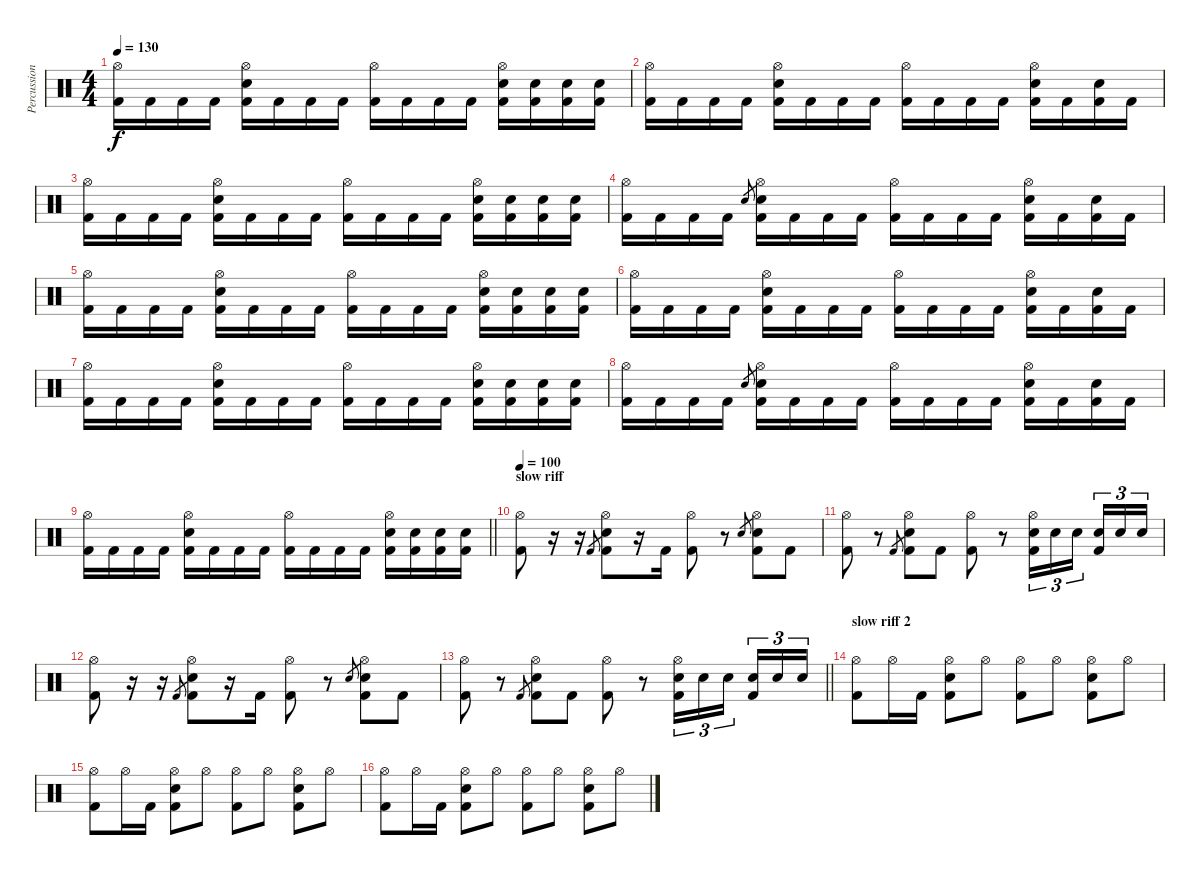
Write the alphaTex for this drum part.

\track ("Percussion" "Percussion") {instrument percussion}
\staff {score}
\articulation defaults
\ts (4 4)
\tempo 130
\clef neutral
\ks c
("Hi-Hat (open)" "Kick (hit) 2").16{dy f} "Kick (hit) 2".16 "Kick (hit) 2".16 "Kick (hit) 2".16 ("Hi-Hat (open)" "Electric Snare (hit)" "Kick (hit) 2").16 "Kick (hit) 2".16 "Kick (hit) 2".16 "Kick (hit) 2".16 ("Hi-Hat (open)" "Kick (hit) 2").16 "Kick (hit) 2".16 "Kick (hit) 2".16 "Kick (hit) 2".16 ("Hi-Hat (open)" "Electric Snare (hit)" "Kick (hit) 2").16 ("Electric Snare (hit)" "Kick (hit) 2").16 ("Electric Snare (hit)" "Kick (hit) 2").16 ("Electric Snare (hit)" "Kick (hit) 2").16 |
("Hi-Hat (open)" "Kick (hit) 2").16 "Kick (hit) 2".16 "Kick (hit) 2".16 "Kick (hit) 2".16 ("Hi-Hat (open)" "Electric Snare (hit)" "Kick (hit) 2").16 "Kick (hit) 2".16 "Kick (hit) 2".16 "Kick (hit) 2".16 ("Hi-Hat (open)" "Kick (hit) 2").16 "Kick (hit) 2".16 "Kick (hit) 2".16 "Kick (hit) 2".16 ("Hi-Hat (open)" "Electric Snare (hit)" "Kick (hit) 2").16 "Kick (hit) 2".16 ("Electric Snare (hit)" "Kick (hit) 2").16 "Kick (hit) 2".16 |
("Hi-Hat (open)" "Kick (hit) 2").16 "Kick (hit) 2".16 "Kick (hit) 2".16 "Kick (hit) 2".16 ("Hi-Hat (open)" "Electric Snare (hit)" "Kick (hit) 2").16 "Kick (hit) 2".16 "Kick (hit) 2".16 "Kick (hit) 2".16 ("Hi-Hat (open)" "Kick (hit) 2").16 "Kick (hit) 2".16 "Kick (hit) 2".16 "Kick (hit) 2".16 ("Hi-Hat (open)" "Electric Snare (hit)" "Kick (hit) 2").16 ("Electric Snare (hit)" "Kick (hit) 2").16 ("Electric Snare (hit)" "Kick (hit) 2").16 ("Electric Snare (hit)" "Kick (hit) 2").16 |
("Hi-Hat (open)" "Kick (hit) 2").16 "Kick (hit) 2".16 "Kick (hit) 2".16 "Kick (hit) 2".16 "Electric Snare (hit)".8{gr} ("Hi-Hat (open)" "Electric Snare (hit)" "Kick (hit) 2").16 "Kick (hit) 2".16 "Kick (hit) 2".16 "Kick (hit) 2".16 ("Hi-Hat (open)" "Kick (hit) 2").16 "Kick (hit) 2".16 "Kick (hit) 2".16 "Kick (hit) 2".16 ("Hi-Hat (open)" "Electric Snare (hit)" "Kick (hit) 2").16 "Kick (hit) 2".16 ("Electric Snare (hit)" "Kick (hit) 2").16 "Kick (hit) 2".16 |
("Hi-Hat (open)" "Kick (hit) 2").16 "Kick (hit) 2".16 "Kick (hit) 2".16 "Kick (hit) 2".16 ("Hi-Hat (open)" "Electric Snare (hit)" "Kick (hit) 2").16 "Kick (hit) 2".16 "Kick (hit) 2".16 "Kick (hit) 2".16 ("Hi-Hat (open)" "Kick (hit) 2").16 "Kick (hit) 2".16 "Kick (hit) 2".16 "Kick (hit) 2".16 ("Hi-Hat (open)" "Electric Snare (hit)" "Kick (hit) 2").16 ("Electric Snare (hit)" "Kick (hit) 2").16 ("Electric Snare (hit)" "Kick (hit) 2").16 ("Electric Snare (hit)" "Kick (hit) 2").16 |
("Hi-Hat (open)" "Kick (hit) 2").16 "Kick (hit) 2".16 "Kick (hit) 2".16 "Kick (hit) 2".16 ("Hi-Hat (open)" "Electric Snare (hit)" "Kick (hit) 2").16 "Kick (hit) 2".16 "Kick (hit) 2".16 "Kick (hit) 2".16 ("Hi-Hat (open)" "Kick (hit) 2").16 "Kick (hit) 2".16 "Kick (hit) 2".16 "Kick (hit) 2".16 ("Hi-Hat (open)" "Electric Snare (hit)" "Kick (hit) 2").16 "Kick (hit) 2".16 ("Electric Snare (hit)" "Kick (hit) 2").16 "Kick (hit) 2".16 |
("Hi-Hat (open)" "Kick (hit) 2").16 "Kick (hit) 2".16 "Kick (hit) 2".16 "Kick (hit) 2".16 ("Hi-Hat (open)" "Electric Snare (hit)" "Kick (hit) 2").16 "Kick (hit) 2".16 "Kick (hit) 2".16 "Kick (hit) 2".16 ("Hi-Hat (open)" "Kick (hit) 2").16 "Kick (hit) 2".16 "Kick (hit) 2".16 "Kick (hit) 2".16 ("Hi-Hat (open)" "Electric Snare (hit)" "Kick (hit) 2").16 ("Electric Snare (hit)" "Kick (hit) 2").16 ("Electric Snare (hit)" "Kick (hit) 2").16 ("Electric Snare (hit)" "Kick (hit) 2").16 |
("Hi-Hat (open)" "Kick (hit) 2").16 "Kick (hit) 2".16 "Kick (hit) 2".16 "Kick (hit) 2".16 "Electric Snare (hit)".8{gr} ("Hi-Hat (open)" "Electric Snare (hit)" "Kick (hit) 2").16 "Kick (hit) 2".16 "Kick (hit) 2".16 "Kick (hit) 2".16 ("Hi-Hat (open)" "Kick (hit) 2").16 "Kick (hit) 2".16 "Kick (hit) 2".16 "Kick (hit) 2".16 ("Hi-Hat (open)" "Electric Snare (hit)" "Kick (hit) 2").16 "Kick (hit) 2".16 ("Electric Snare (hit)" "Kick (hit) 2").16 "Kick (hit) 2".16 |
\barLineRight lightlight
("Hi-Hat (open)" "Kick (hit) 2").16 "Kick (hit) 2".16 "Kick (hit) 2".16 "Kick (hit) 2".16 ("Hi-Hat (open)" "Electric Snare (hit)" "Kick (hit) 2").16 "Kick (hit) 2".16 "Kick (hit) 2".16 "Kick (hit) 2".16 ("Hi-Hat (open)" "Kick (hit) 2").16 "Kick (hit) 2".16 "Kick (hit) 2".16 "Kick (hit) 2".16 ("Hi-Hat (open)" "Electric Snare (hit)" "Kick (hit) 2").16 ("Electric Snare (hit)" "Kick (hit) 2").16 ("Electric Snare (hit)" "Kick (hit) 2").16 ("Electric Snare (hit)" "Kick (hit) 2").16 |
\section ("" "slow riff")
\tempo 100
("Hi-Hat (open)" "Kick (hit) 2").8 r.16 r.16 "Kick (hit) 2".8{gr} ("Hi-Hat (open)" "Electric Snare (hit)" "Kick (hit) 2").8 r.16 "Kick (hit) 2".16 ("Hi-Hat (open)" "Kick (hit) 2").8 r.8 "Electric Snare (hit)".8{gr} ("Hi-Hat (open)" "Electric Snare (hit)" "Kick (hit) 2").8 "Kick (hit) 2".8 |
("Hi-Hat (open)" "Kick (hit) 2").8 r.8 "Kick (hit) 2".8{gr} ("Hi-Hat (open)" "Electric Snare (hit)" "Kick (hit) 2").8 "Kick (hit) 2".8 ("Hi-Hat (open)" "Kick (hit) 2").8 r.8 ("Hi-Hat (open)" "Electric Snare (hit)" "Kick (hit) 2").16{tu (3 2)} "Electric Snare (hit)".16{tu (3 2)} "Electric Snare (hit)".16{tu (3 2) beam splitsecondary} ("Electric Snare (hit)" "Kick (hit) 2").16{tu (3 2)} "Electric Snare (hit)".16{tu (3 2)} "Electric Snare (hit)".16{tu (3 2)} |
("Hi-Hat (open)" "Kick (hit) 2").8 r.16 r.16 "Kick (hit) 2".8{gr} ("Hi-Hat (open)" "Electric Snare (hit)" "Kick (hit) 2").8 r.16 "Kick (hit) 2".16 ("Hi-Hat (open)" "Kick (hit) 2").8 r.8 "Electric Snare (hit)".8{gr} ("Hi-Hat (open)" "Electric Snare (hit)" "Kick (hit) 2").8 "Kick (hit) 2".8 |
\barLineRight lightlight
("Hi-Hat (open)" "Kick (hit) 2").8 r.8 "Kick (hit) 2".8{gr} ("Hi-Hat (open)" "Electric Snare (hit)" "Kick (hit) 2").8 "Kick (hit) 2".8 ("Hi-Hat (open)" "Kick (hit) 2").8 r.8 ("Hi-Hat (open)" "Electric Snare (hit)" "Kick (hit) 2").16{tu (3 2)} "Electric Snare (hit)".16{tu (3 2)} "Electric Snare (hit)".16{tu (3 2) beam splitsecondary} ("Electric Snare (hit)" "Kick (hit) 2").16{tu (3 2)} "Electric Snare (hit)".16{tu (3 2)} "Electric Snare (hit)".16{tu (3 2)} |
\section ("" "slow riff 2")
("Hi-Hat (open)" "Kick (hit) 2").8 "Hi-Hat (open)".16 "Kick (hit) 2".16 ("Hi-Hat (open)" "Electric Snare (hit)" "Kick (hit) 2").8 "Hi-Hat (open)".8 ("Hi-Hat (open)" "Kick (hit) 2").8 "Hi-Hat (open)".8 ("Hi-Hat (open)" "Electric Snare (hit)" "Kick (hit) 2").8 "Hi-Hat (open)".8 |
("Hi-Hat (open)" "Kick (hit) 2").8 "Hi-Hat (open)".16 "Kick (hit) 2".16 ("Hi-Hat (open)" "Electric Snare (hit)" "Kick (hit) 2").8 "Hi-Hat (open)".8 ("Hi-Hat (open)" "Kick (hit) 2").8 "Hi-Hat (open)".8 ("Hi-Hat (open)" "Electric Snare (hit)" "Kick (hit) 2").8 "Hi-Hat (open)".8 |
("Hi-Hat (open)" "Kick (hit) 2").8 "Hi-Hat (open)".16 "Kick (hit) 2".16 ("Hi-Hat (open)" "Electric Snare (hit)" "Kick (hit) 2").8 "Hi-Hat (open)".8 ("Hi-Hat (open)" "Kick (hit) 2").8 "Hi-Hat (open)".8 ("Hi-Hat (open)" "Electric Snare (hit)" "Kick (hit) 2").8 "Hi-Hat (open)".8
